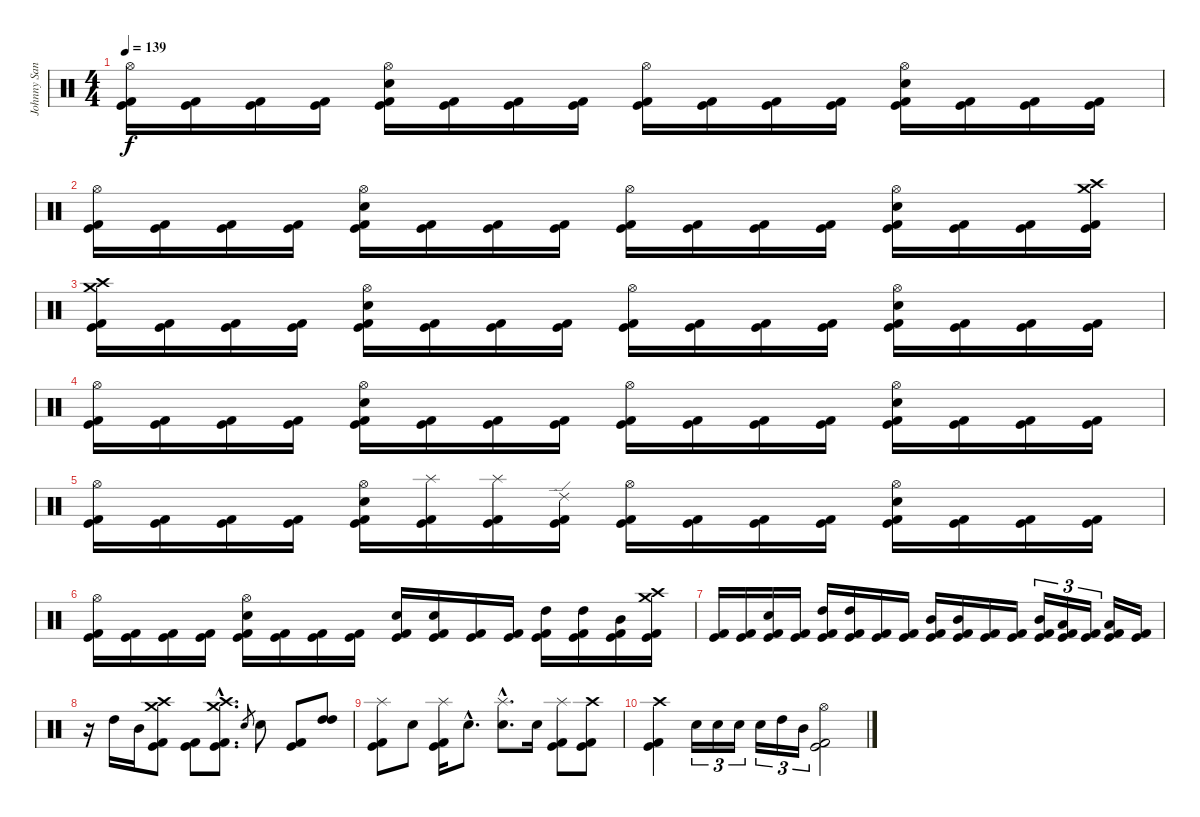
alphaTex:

\track ("Johnny Sandin" "Johnny San") {instrument percussion}
\staff {score}
\articulation defaults
\ts (4 4)
\tempo 139
\clef neutral
\ks c
("Hi-Hat (open)" "Kick (hit) 2" "Kick (hit)").16{dy f} ("Kick (hit) 2" "Kick (hit)").16 ("Kick (hit) 2" "Kick (hit)").16 ("Kick (hit) 2" "Kick (hit)").16 ("Hi-Hat (open)" "Snare (hit) 2" "Kick (hit) 2" "Kick (hit)").16 ("Kick (hit) 2" "Kick (hit)").16 ("Kick (hit) 2" "Kick (hit)").16 ("Kick (hit) 2" "Kick (hit)").16 ("Hi-Hat (open)" "Kick (hit) 2" "Kick (hit)").16 ("Kick (hit) 2" "Kick (hit)").16 ("Kick (hit) 2" "Kick (hit)").16 ("Kick (hit) 2" "Kick (hit)").16 ("Hi-Hat (open)" "Snare (hit) 2" "Kick (hit) 2" "Kick (hit)").16 ("Kick (hit) 2" "Kick (hit)").16 ("Kick (hit) 2" "Kick (hit)").16 ("Kick (hit) 2" "Kick (hit)").16 |
("Hi-Hat (open)" "Kick (hit) 2" "Kick (hit)").16 ("Kick (hit) 2" "Kick (hit)").16 ("Kick (hit) 2" "Kick (hit)").16 ("Kick (hit) 2" "Kick (hit)").16 ("Hi-Hat (open)" "Snare (hit) 2" "Kick (hit) 2" "Kick (hit)").16 ("Kick (hit) 2" "Kick (hit)").16 ("Kick (hit) 2" "Kick (hit)").16 ("Kick (hit) 2" "Kick (hit)").16 ("Hi-Hat (open)" "Kick (hit) 2" "Kick (hit)").16 ("Kick (hit) 2" "Kick (hit)").16 ("Kick (hit) 2" "Kick (hit)").16 ("Kick (hit) 2" "Kick (hit)").16 ("Hi-Hat (open)" "Snare (hit) 2" "Kick (hit) 2" "Kick (hit)").16 ("Kick (hit) 2" "Kick (hit)").16 ("Kick (hit) 2" "Kick (hit)").16 ("Crash medium (hit)" "Crash high (hit)" "Kick (hit) 2" "Kick (hit)").16 |
("Crash medium (hit)" "Crash high (hit)" "Kick (hit) 2" "Kick (hit)").16 ("Kick (hit) 2" "Kick (hit)").16 ("Kick (hit) 2" "Kick (hit)").16 ("Kick (hit) 2" "Kick (hit)").16 ("Hi-Hat (open)" "Snare (hit) 2" "Kick (hit) 2" "Kick (hit)").16 ("Kick (hit) 2" "Kick (hit)").16 ("Kick (hit) 2" "Kick (hit)").16 ("Kick (hit) 2" "Kick (hit)").16 ("Hi-Hat (open)" "Kick (hit) 2" "Kick (hit)").16 ("Kick (hit) 2" "Kick (hit)").16 ("Kick (hit) 2" "Kick (hit)").16 ("Kick (hit) 2" "Kick (hit)").16 ("Hi-Hat (open)" "Snare (hit) 2" "Kick (hit) 2" "Kick (hit)").16 ("Kick (hit) 2" "Kick (hit)").16 ("Kick (hit) 2" "Kick (hit)").16 ("Kick (hit) 2" "Kick (hit)").16 |
("Hi-Hat (open)" "Kick (hit) 2" "Kick (hit)").16 ("Kick (hit) 2" "Kick (hit)").16 ("Kick (hit) 2" "Kick (hit)").16 ("Kick (hit) 2" "Kick (hit)").16 ("Hi-Hat (open)" "Snare (hit) 2" "Kick (hit) 2" "Kick (hit)").16 ("Kick (hit) 2" "Kick (hit)").16 ("Kick (hit) 2" "Kick (hit)").16 ("Kick (hit) 2" "Kick (hit)").16 ("Hi-Hat (open)" "Kick (hit) 2" "Kick (hit)").16 ("Kick (hit) 2" "Kick (hit)").16 ("Kick (hit) 2" "Kick (hit)").16 ("Kick (hit) 2" "Kick (hit)").16 ("Hi-Hat (open)" "Snare (hit) 2" "Kick (hit) 2" "Kick (hit)").16 ("Kick (hit) 2" "Kick (hit)").16 ("Kick (hit) 2" "Kick (hit)").16 ("Kick (hit) 2" "Kick (hit)").16 |
("Hi-Hat (open)" "Kick (hit) 2" "Kick (hit)").16 ("Kick (hit) 2" "Kick (hit)").16 ("Kick (hit) 2" "Kick (hit)").16 ("Kick (hit) 2" "Kick (hit)").16 ("Hi-Hat (open)" "Snare (hit) 2" "Kick (hit) 2" "Kick (hit)").16 ("Splash (hit)" "Kick (hit) 2" "Kick (hit)").16 ("Splash (hit)" "Kick (hit) 2" "Kick (hit)").16 ("Ride (edge) 2" "Kick (hit) 2" "Kick (hit)").16 ("Hi-Hat (open)" "Kick (hit) 2" "Kick (hit)").16 ("Kick (hit) 2" "Kick (hit)").16 ("Kick (hit) 2" "Kick (hit)").16 ("Kick (hit) 2" "Kick (hit)").16 ("Hi-Hat (open)" "Snare (hit) 2" "Kick (hit) 2" "Kick (hit)").16 ("Kick (hit) 2" "Kick (hit)").16 ("Kick (hit) 2" "Kick (hit)").16 ("Kick (hit) 2" "Kick (hit)").16 |
("Hi-Hat (open)" "Kick (hit) 2" "Kick (hit)").16 ("Kick (hit) 2" "Kick (hit)").16 ("Kick (hit) 2" "Kick (hit)").16 ("Kick (hit) 2" "Kick (hit)").16 ("Hi-Hat (open)" "Snare (hit) 2" "Kick (hit) 2" "Kick (hit)").16 ("Kick (hit) 2" "Kick (hit)").16 ("Kick (hit) 2" "Kick (hit)").16 ("Kick (hit) 2" "Kick (hit)").16 ("Snare (hit) 2" "Kick (hit) 2" "Kick (hit)").16 ("Snare (hit) 2" "Kick (hit) 2" "Kick (hit)").16 ("Kick (hit) 2" "Kick (hit)").16 ("Kick (hit) 2" "Kick (hit)").16 ("High Tom (hit)" "Kick (hit) 2" "Kick (hit)").16 ("High Tom (hit)" "Kick (hit) 2" "Kick (hit)").16 ("Mid Tom (hit)" "Kick (hit) 2" "Kick (hit)").16 ("Crash medium (hit)" "Crash high (hit)" "Kick (hit) 2" "Kick (hit)").16 |
("Kick (hit) 2" "Kick (hit)").16 ("Kick (hit) 2" "Kick (hit)").16 ("Snare (hit) 2" "Kick (hit) 2" "Kick (hit)").16 ("Kick (hit) 2" "Kick (hit)").16 ("High Tom (hit)" "Kick (hit) 2" "Kick (hit)").16 ("High Tom (hit)" "Kick (hit) 2" "Kick (hit)").16 ("Kick (hit) 2" "Kick (hit)").16 ("Kick (hit) 2" "Kick (hit)").16 ("Mid Tom (hit)" "Kick (hit) 2" "Kick (hit)").16 ("Mid Tom (hit)" "Kick (hit) 2" "Kick (hit)").16 ("Kick (hit) 2" "Kick (hit)").16 ("Kick (hit) 2" "Kick (hit)").16 ("Mid Tom (hit)" "Kick (hit) 2" "Kick (hit)").16{tu (3 2)} ("Low Tom (hit)" "Kick (hit) 2" "Kick (hit)").16{tu (3 2)} ("Kick (hit) 2" "Kick (hit)").16{tu (3 2)} ("Low Tom (hit)" "Kick (hit) 2" "Kick (hit)").16 ("Kick (hit) 2" "Kick (hit)").16 |
r.16 "High Tom (hit)".16 "Mid Tom (hit)".16 ("Crash medium (hit)" "Crash high (hit)" "Kick (hit) 2" "Kick (hit)").8 ("Kick (hit) 2" "Kick (hit)").8 ("Crash medium (hit)"{hac} "Crash high (hit)"{hac} "Kick (hit) 2"{hac} "Kick (hit)"{hac}).8{d} "Snare (hit) 2".8{gr} "Snare (hit) 2".8 ("Kick (hit)" "Kick (hit) 2").8 ("High Tom (hit)" "High Tom (hit)").8 |
("Splash (hit)" "Kick (hit) 2" "Kick (hit)").8 "Snare (hit) 2".8 ("Splash (hit)" "Kick (hit) 2" "Kick (hit)").16 "Snare (hit) 2"{hac}.8{d} ("Splash (hit)"{hac} "Snare (hit) 2"{hac}).8{d} "Snare (hit) 2".16 ("Splash (hit)" "Kick (hit) 2" "Kick (hit)").8 ("Crash high (hit)" "Kick (hit) 2" "Kick (hit)").8 |
("Crash high (hit)" "Kick (hit) 2" "Kick (hit)").4 "Snare (hit) 2".16{tu (3 2)} "Snare (hit) 2".16{tu (3 2)} "Snare (hit) 2".16{tu (3 2)} "Snare (hit) 2".16{tu (3 2)} "High Tom (hit)".16{tu (3 2)} "Mid Tom (hit)".16{tu (3 2)} ("Hi-Hat (open)" "Kick (hit) 2" "Kick (hit)").2
